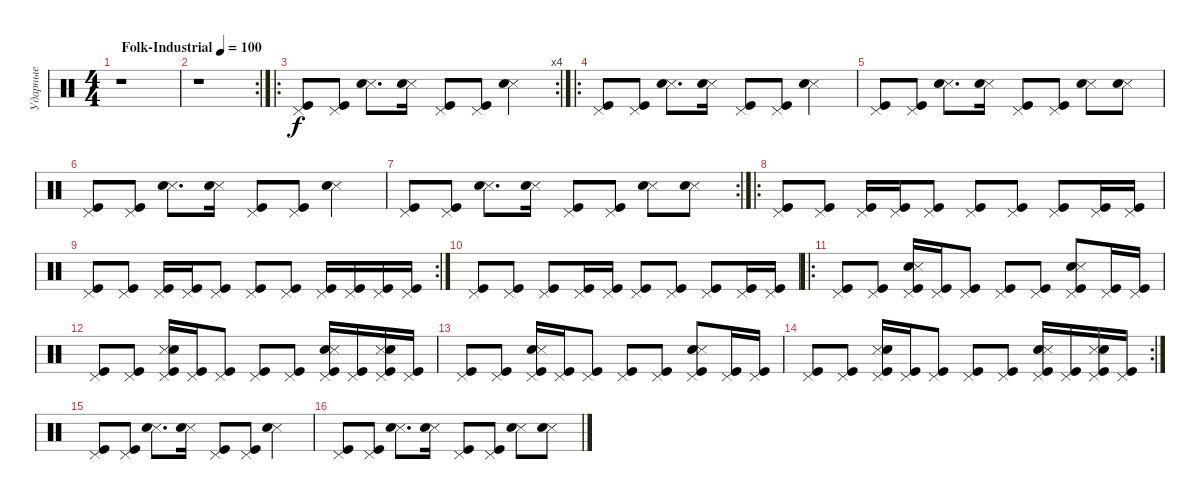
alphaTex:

\track ("Ударные" "Ударные") {instrument percussion}
\staff {score}
\articulation defaults
\ts (4 4)
\tempo (100 "Folk-Industrial")
\clef neutral
\ks c
r.1{dy f} |
\rc 2
r.1 |
\ro
\rc 4
("Kick (hit)" "Pedal Hi-Hat (hit)").8 ("Pedal Hi-Hat (hit)" "Kick (hit)").8 ("Snare (side stick) 3" "Snare (hit) 2").8{d} ("Snare (side stick) 3" "Snare (hit) 2").16 ("Kick (hit)" "Pedal Hi-Hat (hit)").8 ("Pedal Hi-Hat (hit)" "Kick (hit)").8 ("Snare (side stick) 3" "Snare (hit) 2").4 |
\ro
("Kick (hit)" "Pedal Hi-Hat (hit)").8 ("Pedal Hi-Hat (hit)" "Kick (hit)").8 ("Snare (side stick) 3" "Snare (hit) 2").8{d} ("Snare (side stick) 3" "Snare (hit) 2").16 ("Kick (hit)" "Pedal Hi-Hat (hit)").8 ("Pedal Hi-Hat (hit)" "Kick (hit)").8 ("Snare (side stick) 3" "Snare (hit) 2").4 |
("Kick (hit)" "Pedal Hi-Hat (hit)").8 ("Pedal Hi-Hat (hit)" "Kick (hit)").8 ("Snare (side stick) 3" "Snare (hit) 2").8{d} ("Snare (side stick) 3" "Snare (hit) 2").16 ("Kick (hit)" "Pedal Hi-Hat (hit)").8 ("Pedal Hi-Hat (hit)" "Kick (hit)").8 ("Snare (side stick) 3" "Snare (hit) 2").8 ("Snare (side stick) 3" "Snare (hit) 2").8 |
("Kick (hit)" "Pedal Hi-Hat (hit)").8 ("Pedal Hi-Hat (hit)" "Kick (hit)").8 ("Snare (side stick) 3" "Snare (hit) 2").8{d} ("Snare (side stick) 3" "Snare (hit) 2").16 ("Kick (hit)" "Pedal Hi-Hat (hit)").8 ("Pedal Hi-Hat (hit)" "Kick (hit)").8 ("Snare (side stick) 3" "Snare (hit) 2").4 |
\rc 2
("Kick (hit)" "Pedal Hi-Hat (hit)").8 ("Pedal Hi-Hat (hit)" "Kick (hit)").8 ("Snare (side stick) 3" "Snare (hit) 2").8{d} ("Snare (side stick) 3" "Snare (hit) 2").16 ("Kick (hit)" "Pedal Hi-Hat (hit)").8 ("Pedal Hi-Hat (hit)" "Kick (hit)").8 ("Snare (side stick) 3" "Snare (hit) 2").8 ("Snare (side stick) 3" "Snare (hit) 2").8 |
\ro
("Kick (hit)" "Pedal Hi-Hat (hit)").8 ("Kick (hit)" "Pedal Hi-Hat (hit)").8 ("Kick (hit)" "Pedal Hi-Hat (hit)").16 ("Kick (hit)" "Pedal Hi-Hat (hit)").16 ("Kick (hit)" "Pedal Hi-Hat (hit)").8 ("Kick (hit)" "Pedal Hi-Hat (hit)").8 ("Kick (hit)" "Pedal Hi-Hat (hit)").8 ("Kick (hit)" "Pedal Hi-Hat (hit)").8 ("Kick (hit)" "Pedal Hi-Hat (hit)").16 ("Kick (hit)" "Pedal Hi-Hat (hit)").16 |
\rc 2
("Kick (hit)" "Pedal Hi-Hat (hit)").8 ("Kick (hit)" "Pedal Hi-Hat (hit)").8 ("Kick (hit)" "Pedal Hi-Hat (hit)").16 ("Kick (hit)" "Pedal Hi-Hat (hit)").16 ("Kick (hit)" "Pedal Hi-Hat (hit)").8 ("Kick (hit)" "Pedal Hi-Hat (hit)").8 ("Kick (hit)" "Pedal Hi-Hat (hit)").8 ("Kick (hit)" "Pedal Hi-Hat (hit)").16 ("Kick (hit)" "Pedal Hi-Hat (hit)").16 ("Kick (hit)" "Pedal Hi-Hat (hit)").16 ("Kick (hit)" "Pedal Hi-Hat (hit)").16 |
("Kick (hit)" "Pedal Hi-Hat (hit)").8 ("Kick (hit)" "Pedal Hi-Hat (hit)").8 ("Kick (hit)" "Pedal Hi-Hat (hit)").8 ("Kick (hit)" "Pedal Hi-Hat (hit)").16 ("Kick (hit)" "Pedal Hi-Hat (hit)").16 ("Kick (hit)" "Pedal Hi-Hat (hit)").8 ("Kick (hit)" "Pedal Hi-Hat (hit)").8 ("Kick (hit)" "Pedal Hi-Hat (hit)").8 ("Kick (hit)" "Pedal Hi-Hat (hit)").16 ("Kick (hit)" "Pedal Hi-Hat (hit)").16 |
\ro
("Kick (hit)" "Pedal Hi-Hat (hit)").8 ("Kick (hit)" "Pedal Hi-Hat (hit)").8 ("Kick (hit)" "Pedal Hi-Hat (hit)" "Snare (hit) 2" "Snare (side stick) 3").16 ("Kick (hit)" "Pedal Hi-Hat (hit)").16 ("Kick (hit)" "Pedal Hi-Hat (hit)").8 ("Kick (hit)" "Pedal Hi-Hat (hit)").8 ("Kick (hit)" "Pedal Hi-Hat (hit)").8 ("Kick (hit)" "Pedal Hi-Hat (hit)" "Snare (hit) 2" "Snare (side stick) 3").8 ("Kick (hit)" "Pedal Hi-Hat (hit)").16 ("Kick (hit)" "Pedal Hi-Hat (hit)").16 |
("Kick (hit)" "Pedal Hi-Hat (hit)").8 ("Kick (hit)" "Pedal Hi-Hat (hit)").8 ("Kick (hit)" "Pedal Hi-Hat (hit)" "Snare (side stick) 3" "Snare (hit) 2").16 ("Kick (hit)" "Pedal Hi-Hat (hit)").16 ("Kick (hit)" "Pedal Hi-Hat (hit)").8 ("Kick (hit)" "Pedal Hi-Hat (hit)").8 ("Kick (hit)" "Pedal Hi-Hat (hit)").8 ("Kick (hit)" "Pedal Hi-Hat (hit)" "Snare (hit) 2" "Snare (side stick) 3").16 ("Kick (hit)" "Pedal Hi-Hat (hit)").16 ("Kick (hit)" "Pedal Hi-Hat (hit)" "Snare (side stick) 3" "Snare (hit) 2").16 ("Kick (hit)" "Pedal Hi-Hat (hit)").16 |
("Kick (hit)" "Pedal Hi-Hat (hit)").8 ("Kick (hit)" "Pedal Hi-Hat (hit)").8 ("Kick (hit)" "Pedal Hi-Hat (hit)" "Snare (hit) 2" "Snare (side stick) 3").16 ("Kick (hit)" "Pedal Hi-Hat (hit)").16 ("Kick (hit)" "Pedal Hi-Hat (hit)").8 ("Kick (hit)" "Pedal Hi-Hat (hit)").8 ("Kick (hit)" "Pedal Hi-Hat (hit)").8 ("Kick (hit)" "Pedal Hi-Hat (hit)" "Snare (hit) 2" "Snare (side stick) 3").8 ("Kick (hit)" "Pedal Hi-Hat (hit)").16 ("Kick (hit)" "Pedal Hi-Hat (hit)").16 |
\rc 2
("Kick (hit)" "Pedal Hi-Hat (hit)").8 ("Kick (hit)" "Pedal Hi-Hat (hit)").8 ("Kick (hit)" "Pedal Hi-Hat (hit)" "Snare (side stick) 3" "Snare (hit) 2").16 ("Kick (hit)" "Pedal Hi-Hat (hit)").16 ("Kick (hit)" "Pedal Hi-Hat (hit)").8 ("Kick (hit)" "Pedal Hi-Hat (hit)").8 ("Kick (hit)" "Pedal Hi-Hat (hit)").8 ("Kick (hit)" "Pedal Hi-Hat (hit)" "Snare (hit) 2" "Snare (side stick) 3").16 ("Kick (hit)" "Pedal Hi-Hat (hit)").16 ("Kick (hit)" "Pedal Hi-Hat (hit)" "Snare (side stick) 3" "Snare (hit) 2").16 ("Kick (hit)" "Pedal Hi-Hat (hit)").16 |
("Kick (hit)" "Pedal Hi-Hat (hit)").8 ("Pedal Hi-Hat (hit)" "Kick (hit)").8 ("Snare (side stick) 3" "Snare (hit) 2").8{d} ("Snare (side stick) 3" "Snare (hit) 2").16 ("Kick (hit)" "Pedal Hi-Hat (hit)").8 ("Pedal Hi-Hat (hit)" "Kick (hit)").8 ("Snare (side stick) 3" "Snare (hit) 2").4 |
("Kick (hit)" "Pedal Hi-Hat (hit)").8 ("Pedal Hi-Hat (hit)" "Kick (hit)").8 ("Snare (side stick) 3" "Snare (hit) 2").8{d} ("Snare (side stick) 3" "Snare (hit) 2").16 ("Kick (hit)" "Pedal Hi-Hat (hit)").8 ("Pedal Hi-Hat (hit)" "Kick (hit)").8 ("Snare (side stick) 3" "Snare (hit) 2").8 ("Snare (side stick) 3" "Snare (hit) 2").8
